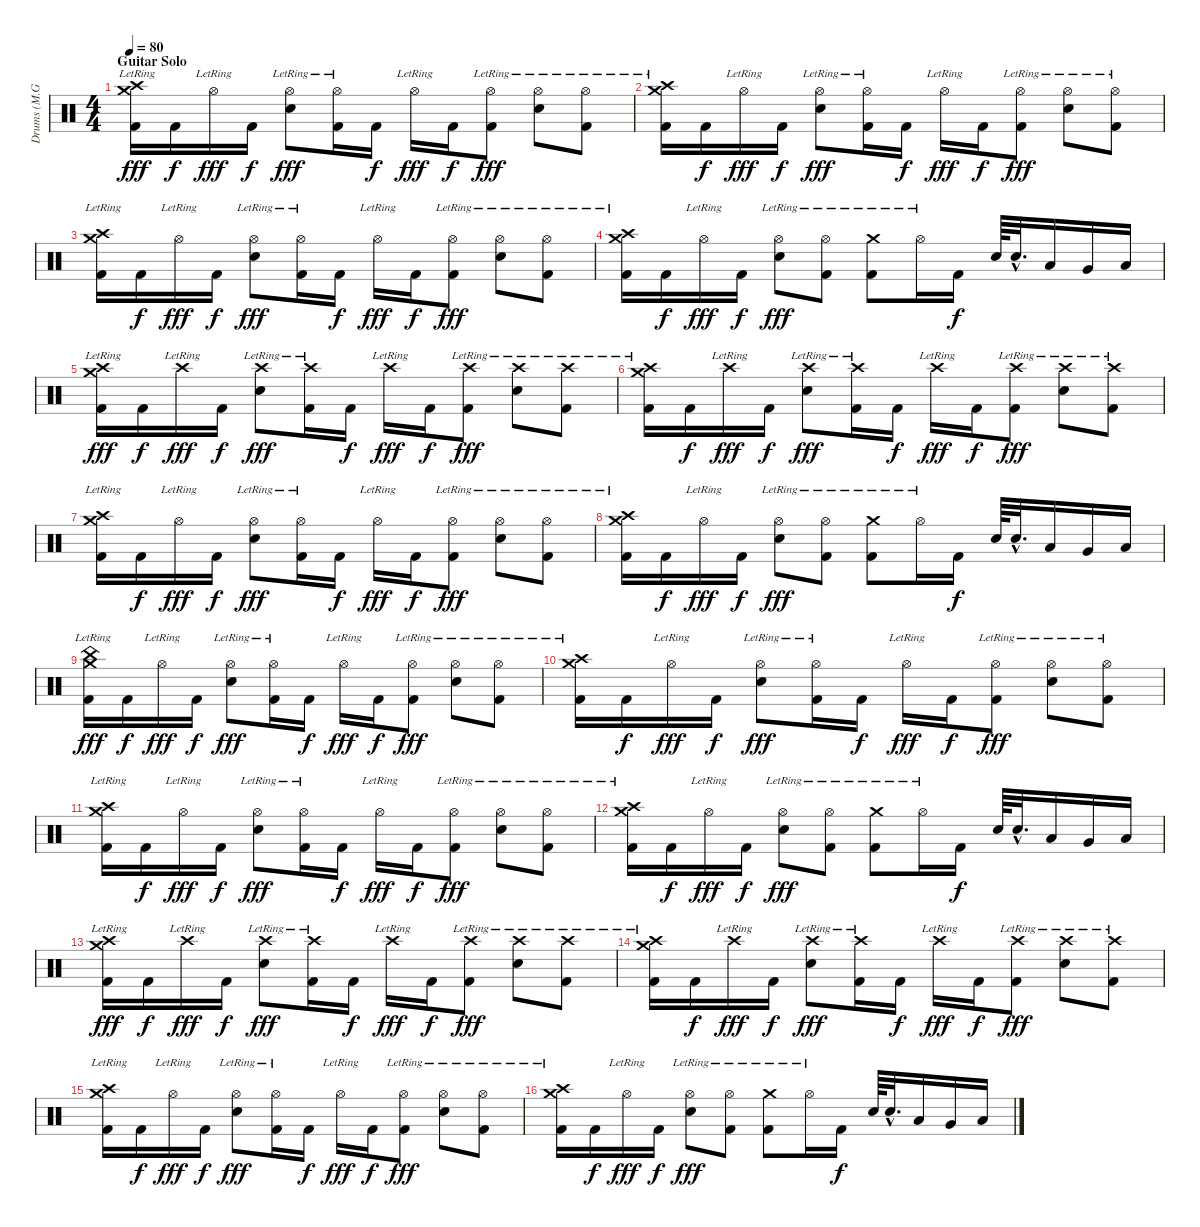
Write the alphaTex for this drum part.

\track ("Drums (M.Grosskopf)" "Drums (M.G") {instrument percussion}
\staff {score}
\articulation defaults
\ts (4 4)
\section ("" "Guitar Solo")
\tempo 80
\clef neutral
\ks c
("Crash high (hit)"{lr} "Crash medium (hit)"{lr} "Kick (hit) 2").16{dy fff} "Kick (hit) 2".16{dy f} "Hi-Hat (open)"{lr}.16{dy fff} "Kick (hit) 2".16{dy f} ("Hi-Hat (open)"{lr} "Electric Snare (hit)").8{dy fff} ("Hi-Hat (open)"{lr} "Kick (hit) 2").16 "Kick (hit) 2".16{dy f} "Hi-Hat (open)"{lr}.16{dy fff} "Kick (hit) 2".16{dy f} ("Hi-Hat (open)"{lr} "Kick (hit) 2").8{dy fff} ("Hi-Hat (open)"{lr} "Electric Snare (hit)").8 ("Hi-Hat (open)"{lr} "Kick (hit) 2").8 |
("Crash high (hit)"{lr} "Crash medium (hit)"{lr} "Kick (hit) 2").16 "Kick (hit) 2".16{dy f} "Hi-Hat (open)"{lr}.16{dy fff} "Kick (hit) 2".16{dy f} ("Hi-Hat (open)"{lr} "Electric Snare (hit)").8{dy fff} ("Hi-Hat (open)"{lr} "Kick (hit) 2").16 "Kick (hit) 2".16{dy f} "Hi-Hat (open)"{lr}.16{dy fff} "Kick (hit) 2".16{dy f} ("Hi-Hat (open)"{lr} "Kick (hit) 2").8{dy fff} ("Hi-Hat (open)"{lr} "Electric Snare (hit)").8 ("Hi-Hat (open)"{lr} "Kick (hit) 2").8 |
("Crash high (hit)"{lr} "Crash medium (hit)"{lr} "Kick (hit) 2").16 "Kick (hit) 2".16{dy f} "Hi-Hat (open)"{lr}.16{dy fff} "Kick (hit) 2".16{dy f} ("Hi-Hat (open)"{lr} "Electric Snare (hit)").8{dy fff} ("Hi-Hat (open)"{lr} "Kick (hit) 2").16 "Kick (hit) 2".16{dy f} "Hi-Hat (open)"{lr}.16{dy fff} "Kick (hit) 2".16{dy f} ("Hi-Hat (open)"{lr} "Kick (hit) 2").8{dy fff} ("Hi-Hat (open)"{lr} "Electric Snare (hit)").8 ("Hi-Hat (open)"{lr} "Kick (hit) 2").8 |
("Crash high (hit)"{lr} "Crash medium (hit)"{lr} "Kick (hit) 2").16 "Kick (hit) 2".16{dy f} "Hi-Hat (open)"{lr}.16{dy fff} "Kick (hit) 2".16{dy f} ("Hi-Hat (open)"{lr} "Electric Snare (hit)").8{dy fff} ("Hi-Hat (open)"{lr} "Kick (hit) 2").8 ("Crash medium (hit)"{lr} "Kick (hit) 2").8 "Hi-Hat (open)"{lr}.16 "Kick (hit) 2".16{dy f} "Electric Snare (hit)".64 "Electric Snare (hit)"{hac}.32{d} "Low Tom (hit)".16 "Very Low Tom (hit)".16 "Low Floor Tom (hit)".16 |
("Crash high (hit)"{lr} "Crash medium (hit)"{lr} "Kick (hit) 2").16{dy fff} "Kick (hit) 2".16{dy f} "Crash high (hit)"{lr}.16{dy fff} "Kick (hit) 2".16{dy f} ("Crash high (hit)"{lr} "Electric Snare (hit)").8{dy fff} ("Crash high (hit)"{lr} "Kick (hit) 2").16 "Kick (hit) 2".16{dy f} "Crash high (hit)"{lr}.16{dy fff} "Kick (hit) 2".16{dy f} ("Crash high (hit)"{lr} "Kick (hit) 2").8{dy fff} ("Crash high (hit)"{lr} "Electric Snare (hit)").8 ("Crash high (hit)"{lr} "Kick (hit) 2").8 |
("Crash high (hit)"{lr} "Crash medium (hit)"{lr} "Kick (hit) 2").16 "Kick (hit) 2".16{dy f} "Crash high (hit)"{lr}.16{dy fff} "Kick (hit) 2".16{dy f} ("Crash high (hit)"{lr} "Electric Snare (hit)").8{dy fff} ("Crash high (hit)"{lr} "Kick (hit) 2").16 "Kick (hit) 2".16{dy f} "Crash high (hit)"{lr}.16{dy fff} "Kick (hit) 2".16{dy f} ("Crash high (hit)"{lr} "Kick (hit) 2").8{dy fff} ("Crash high (hit)"{lr} "Electric Snare (hit)").8 ("Crash high (hit)"{lr} "Kick (hit) 2").8 |
("Crash high (hit)"{lr} "Crash medium (hit)"{lr} "Kick (hit) 2").16 "Kick (hit) 2".16{dy f} "Hi-Hat (open)"{lr}.16{dy fff} "Kick (hit) 2".16{dy f} ("Hi-Hat (open)"{lr} "Electric Snare (hit)").8{dy fff} ("Hi-Hat (open)"{lr} "Kick (hit) 2").16 "Kick (hit) 2".16{dy f} "Hi-Hat (open)"{lr}.16{dy fff} "Kick (hit) 2".16{dy f} ("Hi-Hat (open)"{lr} "Kick (hit) 2").8{dy fff} ("Hi-Hat (open)"{lr} "Electric Snare (hit)").8 ("Hi-Hat (open)"{lr} "Kick (hit) 2").8 |
("Crash high (hit)"{lr} "Crash medium (hit)"{lr} "Kick (hit) 2").16 "Kick (hit) 2".16{dy f} "Hi-Hat (open)"{lr}.16{dy fff} "Kick (hit) 2".16{dy f} ("Hi-Hat (open)"{lr} "Electric Snare (hit)").8{dy fff} ("Hi-Hat (open)"{lr} "Kick (hit) 2").8 ("Crash medium (hit)"{lr} "Kick (hit) 2").8 "Hi-Hat (open)"{lr}.16 "Kick (hit) 2".16{dy f} "Electric Snare (hit)".64 "Electric Snare (hit)"{hac}.32{d} "Low Tom (hit)".16 "Very Low Tom (hit)".16 "Low Floor Tom (hit)".16 |
("Crash medium (hit)"{lr} "Kick (hit) 2" "China (hit)"{lr}).16{dy fff} "Kick (hit) 2".16{dy f} "Hi-Hat (open)"{lr}.16{dy fff} "Kick (hit) 2".16{dy f} ("Hi-Hat (open)"{lr} "Electric Snare (hit)").8{dy fff} ("Hi-Hat (open)"{lr} "Kick (hit) 2").16 "Kick (hit) 2".16{dy f} "Hi-Hat (open)"{lr}.16{dy fff} "Kick (hit) 2".16{dy f} ("Hi-Hat (open)"{lr} "Kick (hit) 2").8{dy fff} ("Hi-Hat (open)"{lr} "Electric Snare (hit)").8 ("Hi-Hat (open)"{lr} "Kick (hit) 2").8 |
("Crash high (hit)"{lr} "Crash medium (hit)"{lr} "Kick (hit) 2").16 "Kick (hit) 2".16{dy f} "Hi-Hat (open)"{lr}.16{dy fff} "Kick (hit) 2".16{dy f} ("Hi-Hat (open)"{lr} "Electric Snare (hit)").8{dy fff} ("Hi-Hat (open)"{lr} "Kick (hit) 2").16 "Kick (hit) 2".16{dy f} "Hi-Hat (open)"{lr}.16{dy fff} "Kick (hit) 2".16{dy f} ("Hi-Hat (open)"{lr} "Kick (hit) 2").8{dy fff} ("Hi-Hat (open)"{lr} "Electric Snare (hit)").8 ("Hi-Hat (open)"{lr} "Kick (hit) 2").8 |
("Crash high (hit)"{lr} "Crash medium (hit)"{lr} "Kick (hit) 2").16 "Kick (hit) 2".16{dy f} "Hi-Hat (open)"{lr}.16{dy fff} "Kick (hit) 2".16{dy f} ("Hi-Hat (open)"{lr} "Electric Snare (hit)").8{dy fff} ("Hi-Hat (open)"{lr} "Kick (hit) 2").16 "Kick (hit) 2".16{dy f} "Hi-Hat (open)"{lr}.16{dy fff} "Kick (hit) 2".16{dy f} ("Hi-Hat (open)"{lr} "Kick (hit) 2").8{dy fff} ("Hi-Hat (open)"{lr} "Electric Snare (hit)").8 ("Hi-Hat (open)"{lr} "Kick (hit) 2").8 |
("Crash high (hit)"{lr} "Crash medium (hit)"{lr} "Kick (hit) 2").16 "Kick (hit) 2".16{dy f} "Hi-Hat (open)"{lr}.16{dy fff} "Kick (hit) 2".16{dy f} ("Hi-Hat (open)"{lr} "Electric Snare (hit)").8{dy fff} ("Hi-Hat (open)"{lr} "Kick (hit) 2").8 ("Crash medium (hit)"{lr} "Kick (hit) 2").8 "Hi-Hat (open)"{lr}.16 "Kick (hit) 2".16{dy f} "Electric Snare (hit)".64 "Electric Snare (hit)"{hac}.32{d} "Low Tom (hit)".16 "Very Low Tom (hit)".16 "Low Floor Tom (hit)".16 |
("Crash high (hit)"{lr} "Crash medium (hit)"{lr} "Kick (hit) 2").16{dy fff} "Kick (hit) 2".16{dy f} "Crash high (hit)"{lr}.16{dy fff} "Kick (hit) 2".16{dy f} ("Crash high (hit)"{lr} "Electric Snare (hit)").8{dy fff} ("Crash high (hit)"{lr} "Kick (hit) 2").16 "Kick (hit) 2".16{dy f} "Crash high (hit)"{lr}.16{dy fff} "Kick (hit) 2".16{dy f} ("Crash high (hit)"{lr} "Kick (hit) 2").8{dy fff} ("Crash high (hit)"{lr} "Electric Snare (hit)").8 ("Crash high (hit)"{lr} "Kick (hit) 2").8 |
("Crash high (hit)"{lr} "Crash medium (hit)"{lr} "Kick (hit) 2").16 "Kick (hit) 2".16{dy f} "Crash high (hit)"{lr}.16{dy fff} "Kick (hit) 2".16{dy f} ("Crash high (hit)"{lr} "Electric Snare (hit)").8{dy fff} ("Crash high (hit)"{lr} "Kick (hit) 2").16 "Kick (hit) 2".16{dy f} "Crash high (hit)"{lr}.16{dy fff} "Kick (hit) 2".16{dy f} ("Crash high (hit)"{lr} "Kick (hit) 2").8{dy fff} ("Crash high (hit)"{lr} "Electric Snare (hit)").8 ("Crash high (hit)"{lr} "Kick (hit) 2").8 |
("Crash high (hit)"{lr} "Crash medium (hit)"{lr} "Kick (hit) 2").16 "Kick (hit) 2".16{dy f} "Hi-Hat (open)"{lr}.16{dy fff} "Kick (hit) 2".16{dy f} ("Hi-Hat (open)"{lr} "Electric Snare (hit)").8{dy fff} ("Hi-Hat (open)"{lr} "Kick (hit) 2").16 "Kick (hit) 2".16{dy f} "Hi-Hat (open)"{lr}.16{dy fff} "Kick (hit) 2".16{dy f} ("Hi-Hat (open)"{lr} "Kick (hit) 2").8{dy fff} ("Hi-Hat (open)"{lr} "Electric Snare (hit)").8 ("Hi-Hat (open)"{lr} "Kick (hit) 2").8 |
("Crash high (hit)"{lr} "Crash medium (hit)"{lr} "Kick (hit) 2").16 "Kick (hit) 2".16{dy f} "Hi-Hat (open)"{lr}.16{dy fff} "Kick (hit) 2".16{dy f} ("Hi-Hat (open)"{lr} "Electric Snare (hit)").8{dy fff} ("Hi-Hat (open)"{lr} "Kick (hit) 2").8 ("Crash medium (hit)"{lr} "Kick (hit) 2").8 "Hi-Hat (open)"{lr}.16 "Kick (hit) 2".16{dy f} "Electric Snare (hit)".64 "Electric Snare (hit)"{hac}.32{d} "Low Tom (hit)".16 "Very Low Tom (hit)".16 "Low Floor Tom (hit)".16
